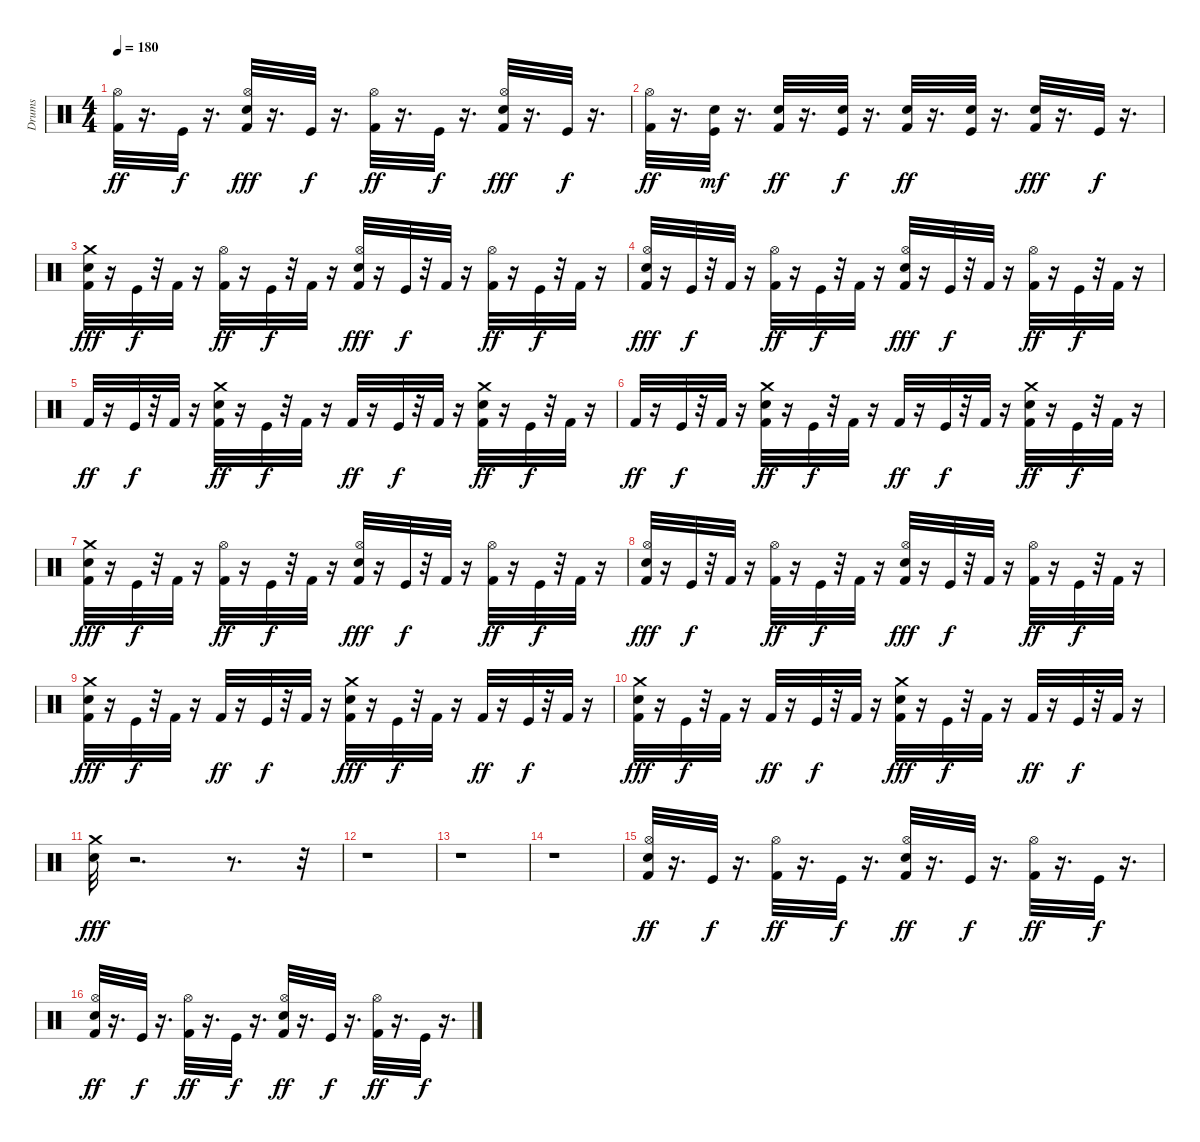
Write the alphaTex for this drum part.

\track ("Drums" "Drums") {instrument percussion}
\staff {score}
\articulation defaults
\ts (4 4)
\tempo 180
\clef neutral
\ks c
("Kick (hit) 2" "Hi-Hat (open)").32{dy ff} r.16{d} "Kick (hit)".32{dy f} r.16{d} ("Kick (hit) 2" "Snare (hit) 2" "Hi-Hat (open)").32{dy fff} r.16{d} "Kick (hit)".32{dy f} r.16{d} ("Kick (hit) 2" "Hi-Hat (open)").32{dy ff} r.16{d} "Kick (hit)".32{dy f} r.16{d} ("Kick (hit) 2" "Snare (hit) 2" "Hi-Hat (open)").32{dy fff} r.16{d} "Kick (hit)".32{dy f} r.16{d} |
("Kick (hit) 2" "Hi-Hat (open)").32{dy ff} r.16{d} ("Kick (hit)" "Snare (hit) 2").32{dy mf} r.16{d} ("Kick (hit) 2" "Snare (hit) 2").32{dy ff} r.16{d} ("Kick (hit)" "Snare (hit) 2").32{dy f} r.16{d} ("Kick (hit) 2" "Snare (hit) 2").32{dy ff} r.16{d} ("Kick (hit)" "Snare (hit) 2").32 r.16{d} ("Kick (hit) 2" "Snare (hit) 2").32{dy fff} r.16{d} "Kick (hit)".32{dy f} r.16{d} |
("Kick (hit) 2" "Snare (hit) 2" "Crash medium (hit)").32{dy fff} r.16 "Kick (hit)".32{dy f} r.32 "Kick (hit) 2".32 r.16 ("Kick (hit) 2" "Hi-Hat (open)").32{dy ff} r.16 "Kick (hit)".32{dy f} r.32 "Kick (hit) 2".32 r.16 ("Kick (hit) 2" "Snare (hit) 2" "Hi-Hat (open)").32{dy fff} r.16 "Kick (hit)".32{dy f} r.32 "Kick (hit) 2".32 r.16 ("Kick (hit) 2" "Hi-Hat (open)").32{dy ff} r.16 "Kick (hit)".32{dy f} r.32 "Kick (hit) 2".32 r.16 |
("Kick (hit) 2" "Snare (hit) 2" "Hi-Hat (open)").32{dy fff} r.16 "Kick (hit)".32{dy f} r.32 "Kick (hit) 2".32 r.16 ("Kick (hit) 2" "Hi-Hat (open)").32{dy ff} r.16 "Kick (hit)".32{dy f} r.32 "Kick (hit) 2".32 r.16 ("Kick (hit) 2" "Snare (hit) 2" "Hi-Hat (open)").32{dy fff} r.16 "Kick (hit)".32{dy f} r.32 "Kick (hit) 2".32 r.16 ("Kick (hit) 2" "Hi-Hat (open)").32{dy ff} r.16 "Kick (hit)".32{dy f} r.32 "Kick (hit) 2".32 r.16 |
"Kick (hit) 2".32{dy ff} r.16 "Kick (hit)".32{dy f} r.32 "Kick (hit) 2".32 r.16 ("Crash medium (hit)" "Snare (hit) 2" "Kick (hit) 2").32{dy ff} r.16 "Kick (hit)".32{dy f} r.32 "Kick (hit) 2".32 r.16 "Kick (hit) 2".32{dy ff} r.16 "Kick (hit)".32{dy f} r.32 "Kick (hit) 2".32 r.16 ("Crash medium (hit)" "Snare (hit) 2" "Kick (hit) 2").32{dy ff} r.16 "Kick (hit)".32{dy f} r.32 "Kick (hit) 2".32 r.16 |
"Kick (hit) 2".32{dy ff} r.16 "Kick (hit)".32{dy f} r.32 "Kick (hit) 2".32 r.16 ("Crash medium (hit)" "Snare (hit) 2" "Kick (hit) 2").32{dy ff} r.16 "Kick (hit)".32{dy f} r.32 "Kick (hit) 2".32 r.16 "Kick (hit) 2".32{dy ff} r.16 "Kick (hit)".32{dy f} r.32 "Kick (hit) 2".32 r.16 ("Crash medium (hit)" "Snare (hit) 2" "Kick (hit) 2").32{dy ff} r.16 "Kick (hit)".32{dy f} r.32 "Kick (hit) 2".32 r.16 |
("Kick (hit) 2" "Snare (hit) 2" "Crash medium (hit)").32{dy fff} r.16 "Kick (hit)".32{dy f} r.32 "Kick (hit) 2".32 r.16 ("Kick (hit) 2" "Hi-Hat (open)").32{dy ff} r.16 "Kick (hit)".32{dy f} r.32 "Kick (hit) 2".32 r.16 ("Kick (hit) 2" "Snare (hit) 2" "Hi-Hat (open)").32{dy fff} r.16 "Kick (hit)".32{dy f} r.32 "Kick (hit) 2".32 r.16 ("Kick (hit) 2" "Hi-Hat (open)").32{dy ff} r.16 "Kick (hit)".32{dy f} r.32 "Kick (hit) 2".32 r.16 |
("Kick (hit) 2" "Snare (hit) 2" "Hi-Hat (open)").32{dy fff} r.16 "Kick (hit)".32{dy f} r.32 "Kick (hit) 2".32 r.16 ("Kick (hit) 2" "Hi-Hat (open)").32{dy ff} r.16 "Kick (hit)".32{dy f} r.32 "Kick (hit) 2".32 r.16 ("Kick (hit) 2" "Snare (hit) 2" "Hi-Hat (open)").32{dy fff} r.16 "Kick (hit)".32{dy f} r.32 "Kick (hit) 2".32 r.16 ("Kick (hit) 2" "Hi-Hat (open)").32{dy ff} r.16 "Kick (hit)".32{dy f} r.32 "Kick (hit) 2".32 r.16 |
("Kick (hit) 2" "Snare (hit) 2" "Crash medium (hit)").32{dy fff} r.16 "Kick (hit)".32{dy f} r.32 "Kick (hit) 2".32 r.16 "Kick (hit) 2".32{dy ff} r.16 "Kick (hit)".32{dy f} r.32 "Kick (hit) 2".32 r.16 ("Crash medium (hit)" "Kick (hit) 2" "Snare (hit) 2").32{dy fff} r.16 "Kick (hit)".32{dy f} r.32 "Kick (hit) 2".32 r.16 "Kick (hit) 2".32{dy ff} r.16 "Kick (hit)".32{dy f} r.32 "Kick (hit) 2".32 r.16 |
("Kick (hit) 2" "Snare (hit) 2" "Crash medium (hit)").32{dy fff} r.16 "Kick (hit)".32{dy f} r.32 "Kick (hit) 2".32 r.16 "Kick (hit) 2".32{dy ff} r.16 "Kick (hit)".32{dy f} r.32 "Kick (hit) 2".32 r.16 ("Crash medium (hit)" "Kick (hit) 2" "Snare (hit) 2").32{dy fff} r.16 "Kick (hit)".32{dy f} r.32 "Kick (hit) 2".32 r.16 "Kick (hit) 2".32{dy ff} r.16 "Kick (hit)".32{dy f} r.32 "Kick (hit) 2".32 r.16 |
("Crash medium (hit)" "Snare (hit) 2").32{dy fff} r.2{d} r.8{d} r.32 |
r.1 |
r.1 |
r.1 |
("Snare (hit) 2" "Hi-Hat (open)" "Kick (hit) 2").32{dy ff} r.16{d} "Kick (hit)".32{dy f} r.16{d} ("Hi-Hat (open)" "Kick (hit) 2").32{dy ff} r.16{d} "Kick (hit)".32{dy f} r.16{d} ("Snare (hit) 2" "Hi-Hat (open)" "Kick (hit) 2").32{dy ff} r.16{d} "Kick (hit)".32{dy f} r.16{d} ("Hi-Hat (open)" "Kick (hit) 2").32{dy ff} r.16{d} "Kick (hit)".32{dy f} r.16{d} |
("Snare (hit) 2" "Hi-Hat (open)" "Kick (hit) 2").32{dy ff} r.16{d} "Kick (hit)".32{dy f} r.16{d} ("Hi-Hat (open)" "Kick (hit) 2").32{dy ff} r.16{d} "Kick (hit)".32{dy f} r.16{d} ("Snare (hit) 2" "Hi-Hat (open)" "Kick (hit) 2").32{dy ff} r.16{d} "Kick (hit)".32{dy f} r.16{d} ("Hi-Hat (open)" "Kick (hit) 2").32{dy ff} r.16{d} "Kick (hit)".32{dy f} r.16{d}
